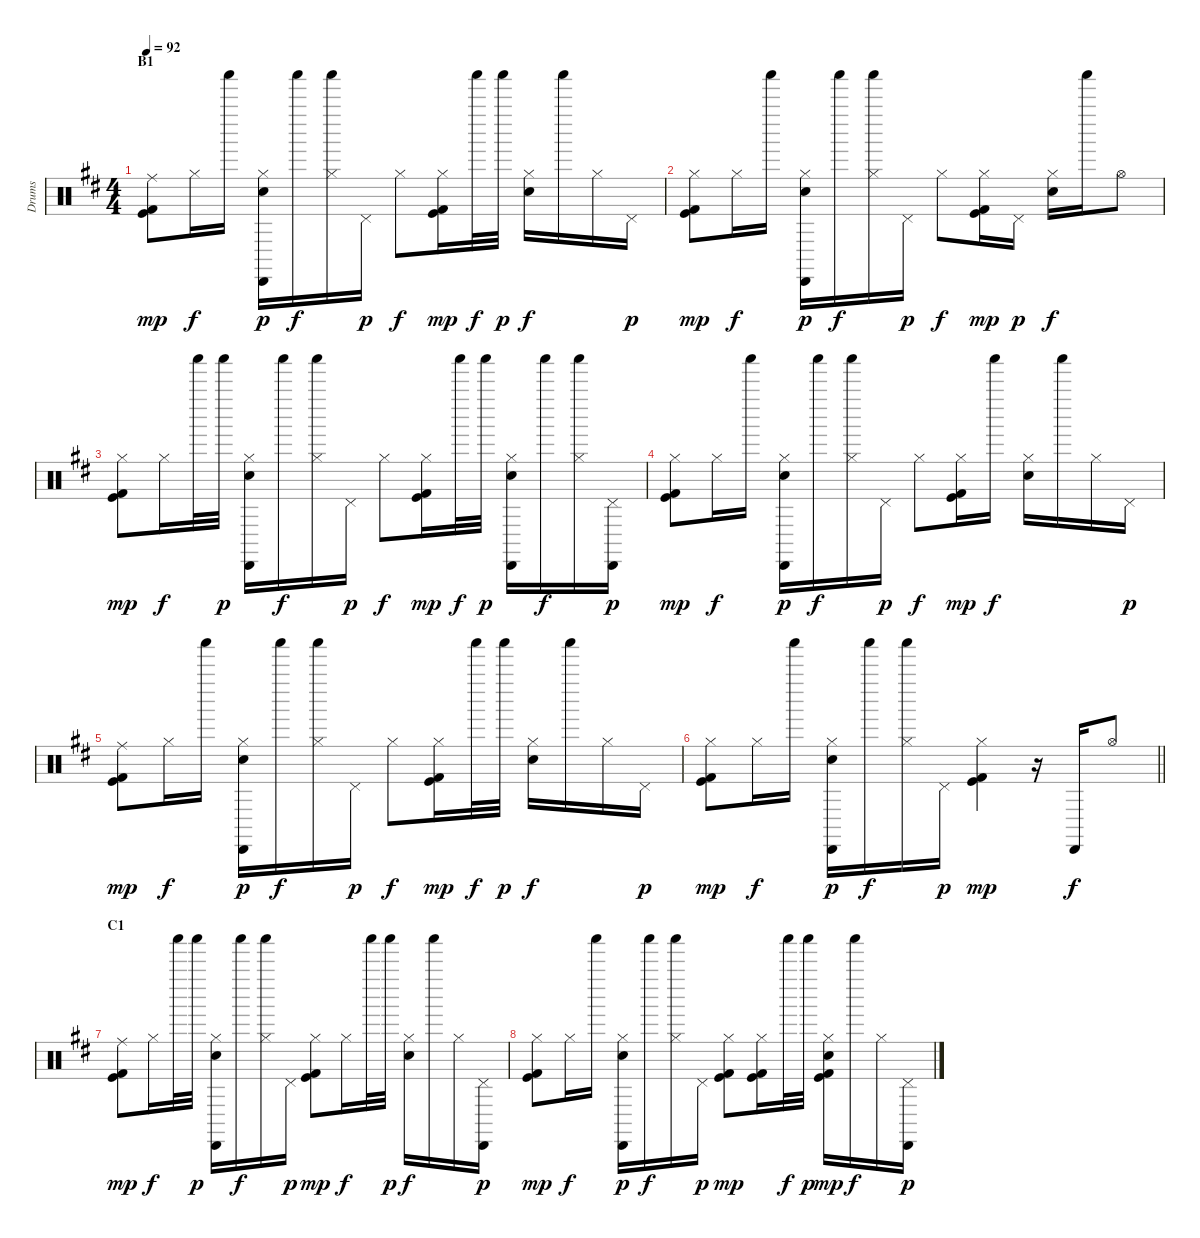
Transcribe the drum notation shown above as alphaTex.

\track ("Drums" "Drums") {instrument percussion}
\staff {score}
\articulation defaults
\ts (4 4)
\section ("" "B1")
\tempo 92
\clef neutral
\ks d
("Ride (middle)" "Kick (hit) 2" "Kick (hit)").8{dy mp} "Hi-Hat (closed)".16{dy f} "Shaker (hit)".16 ("Cabasa (hit)" "Hi-Hat (closed)" "Snare (hit) 2").16{dy p} "Shaker (hit)".16{dy f} ("Shaker (hit)" "Hi-Hat (closed)").16 "Pedal Hi-Hat (hit)".16{dy p} "Hi-Hat (closed)".8{dy f} ("Hi-Hat (closed)" "Kick (hit) 2" "Kick (hit)").16{dy mp} "Shaker (hit)".32{dy f} "Shaker (hit)".32{dy p} ("Hi-Hat (closed)" "Snare (hit) 2").16{dy f} "Shaker (hit)".16 "Hi-Hat (closed)".16 "Pedal Hi-Hat (hit)".16{dy p} |
("Hi-Hat (closed)" "Kick (hit) 2" "Kick (hit)").8{dy mp} "Hi-Hat (closed)".16{dy f} "Shaker (hit)".16 ("Cabasa (hit)" "Hi-Hat (closed)" "Snare (hit) 2").16{dy p} "Shaker (hit)".16{dy f} ("Shaker (hit)" "Hi-Hat (closed)").16 "Pedal Hi-Hat (hit)".16{dy p} "Hi-Hat (closed)".8{dy f} ("Hi-Hat (closed)" "Kick (hit) 2" "Kick (hit)").16{dy mp} "Pedal Hi-Hat (hit)".16{dy p} ("Hi-Hat (closed)" "Snare (hit) 2").16{dy f} "Shaker (hit)".16 "Hi-Hat (open)".8 |
("Hi-Hat (closed)" "Kick (hit) 2" "Kick (hit)").8{dy mp} "Hi-Hat (closed)".16{dy f} "Shaker (hit)".32 "Shaker (hit)".32{dy p} ("Cabasa (hit)" "Hi-Hat (closed)" "Snare (hit) 2").16 "Shaker (hit)".16{dy f} ("Shaker (hit)" "Hi-Hat (closed)").16 "Pedal Hi-Hat (hit)".16{dy p} "Hi-Hat (closed)".8{dy f} ("Hi-Hat (closed)" "Kick (hit) 2" "Kick (hit)").16{dy mp} "Shaker (hit)".32{dy f} "Shaker (hit)".32{dy p} ("Cabasa (hit)" "Hi-Hat (closed)" "Snare (hit) 2").16 "Shaker (hit)".16{dy f} ("Shaker (hit)" "Hi-Hat (closed)").16 ("Cabasa (hit)" "Pedal Hi-Hat (hit)").16{dy p} |
("Hi-Hat (closed)" "Kick (hit) 2" "Kick (hit)").8{dy mp} "Hi-Hat (closed)".16{dy f} "Shaker (hit)".16 ("Cabasa (hit)" "Hi-Hat (closed)" "Snare (hit) 2").16{dy p} "Shaker (hit)".16{dy f} ("Shaker (hit)" "Hi-Hat (closed)").16 "Pedal Hi-Hat (hit)".16{dy p} "Hi-Hat (closed)".8{dy f} ("Hi-Hat (closed)" "Kick (hit) 2" "Kick (hit)").16{dy mp} "Shaker (hit)".16{dy f} ("Hi-Hat (closed)" "Snare (hit) 2").16 "Shaker (hit)".16 "Hi-Hat (closed)".16 "Pedal Hi-Hat (hit)".16{dy p} |
("Ride (middle)" "Kick (hit) 2" "Kick (hit)").8{dy mp} "Hi-Hat (closed)".16{dy f} "Shaker (hit)".16 ("Cabasa (hit)" "Hi-Hat (closed)" "Snare (hit) 2").16{dy p} "Shaker (hit)".16{dy f} ("Shaker (hit)" "Hi-Hat (closed)").16 "Pedal Hi-Hat (hit)".16{dy p} "Hi-Hat (closed)".8{dy f} ("Hi-Hat (closed)" "Kick (hit) 2" "Kick (hit)").16{dy mp} "Shaker (hit)".32{dy f} "Shaker (hit)".32{dy p} ("Hi-Hat (closed)" "Snare (hit) 2").16{dy f} "Shaker (hit)".16 "Hi-Hat (closed)".16 "Pedal Hi-Hat (hit)".16{dy p} |
\barLineRight lightlight
("Hi-Hat (closed)" "Kick (hit) 2" "Kick (hit)").8{dy mp} "Hi-Hat (closed)".16{dy f} "Shaker (hit)".16 ("Cabasa (hit)" "Hi-Hat (closed)" "Snare (hit) 2").16{dy p} "Shaker (hit)".16{dy f} ("Shaker (hit)" "Hi-Hat (closed)").16 "Pedal Hi-Hat (hit)".16{dy p} ("Hi-Hat (closed)" "Kick (hit) 2" "Kick (hit)").4{dy mp} r.16 "Cabasa (hit)".16{dy f} "Hi-Hat (open)".8 |
\section ("" "C1")
("Ride (middle)" "Kick (hit) 2" "Kick (hit)").8{dy mp} "Hi-Hat (closed)".16{dy f} "Shaker (hit)".32 "Shaker (hit)".32{dy p} ("Cabasa (hit)" "Hi-Hat (closed)" "Snare (hit) 2").16 "Shaker (hit)".16{dy f} ("Shaker (hit)" "Hi-Hat (closed)").16 "Pedal Hi-Hat (hit)".16{dy p} ("Hi-Hat (closed)" "Kick (hit) 2" "Kick (hit)").8{dy mp} "Hi-Hat (closed)".16{dy f} "Shaker (hit)".32 "Shaker (hit)".32{dy p} ("Hi-Hat (closed)" "Snare (hit) 2").16{dy f} "Shaker (hit)".16 "Hi-Hat (closed)".16 ("Cabasa (hit)" "Pedal Hi-Hat (hit)").16{dy p} |
("Hi-Hat (closed)" "Kick (hit) 2" "Kick (hit)").8{dy mp} "Hi-Hat (closed)".16{dy f} "Shaker (hit)".16 ("Cabasa (hit)" "Hi-Hat (closed)" "Snare (hit) 2").16{dy p} "Shaker (hit)".16{dy f} ("Shaker (hit)" "Hi-Hat (closed)").16 "Pedal Hi-Hat (hit)".16{dy p} ("Hi-Hat (closed)" "Kick (hit) 2" "Kick (hit)").8{dy mp} ("Hi-Hat (closed)" "Kick (hit) 2" "Kick (hit)").16 "Shaker (hit)".32{dy f} "Shaker (hit)".32{dy p} ("Hi-Hat (closed)" "Snare (hit) 2" "Kick (hit) 2" "Kick (hit)").16{dy mp} "Shaker (hit)".16{dy f} "Hi-Hat (closed)".16 ("Cabasa (hit)" "Pedal Hi-Hat (hit)").16{dy p}
